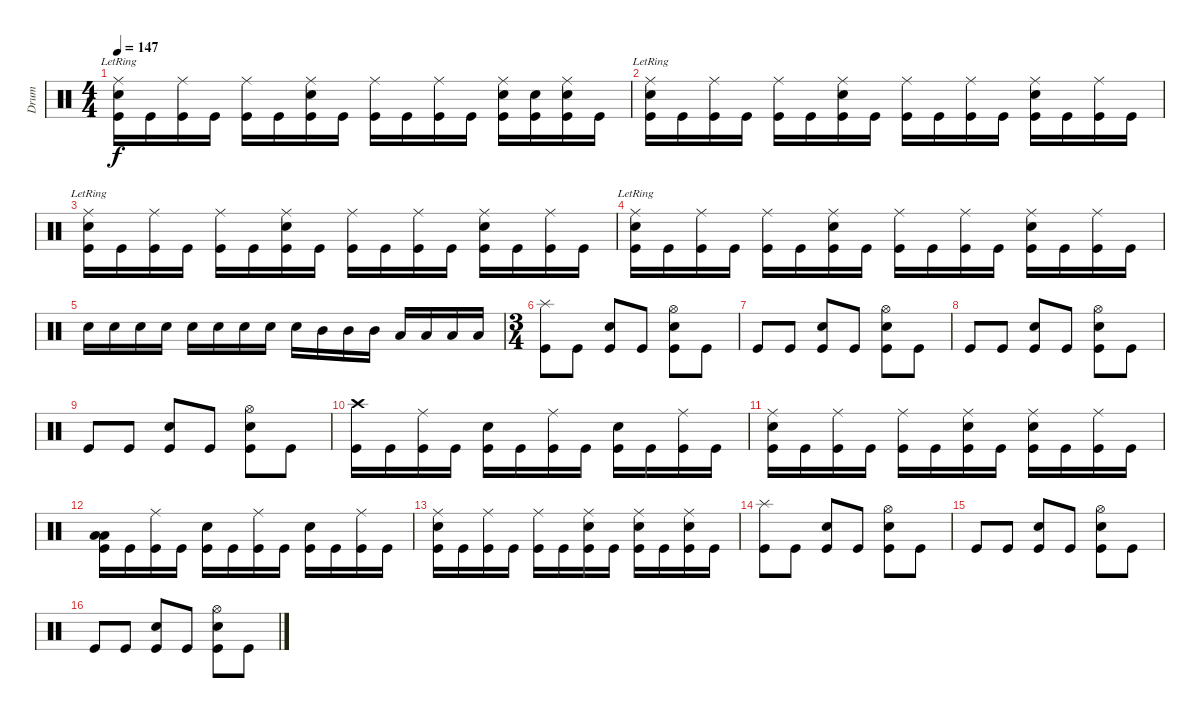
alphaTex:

\track ("Drum" "Drum") {instrument percussion}
\staff {score}
\articulation defaults
\ts (4 4)
\tempo 147
\clef neutral
\ks c
("Ride (middle)"{lr} "Snare (hit) 2" "Kick (hit)").16{dy f} "Kick (hit)".16 ("Ride (middle)" "Kick (hit)").16 "Kick (hit)".16 ("Ride (middle)" "Kick (hit)").16 "Kick (hit)".16 ("Ride (middle)" "Snare (hit) 2" "Kick (hit)").16 "Kick (hit)".16 ("Ride (middle)" "Kick (hit)").16 "Kick (hit)".16 ("Ride (middle)" "Kick (hit)").16 "Kick (hit)".16 ("Ride (middle)" "Snare (hit) 2" "Kick (hit)").16 ("Snare (hit) 2" "Kick (hit)").16 ("Ride (middle)" "Snare (hit) 2" "Kick (hit)").16 "Kick (hit)".16 |
("Ride (middle)"{lr} "Snare (hit) 2" "Kick (hit)").16 "Kick (hit)".16 ("Ride (middle)" "Kick (hit)").16 "Kick (hit)".16 ("Ride (middle)" "Kick (hit)").16 "Kick (hit)".16 ("Ride (middle)" "Snare (hit) 2" "Kick (hit)").16 "Kick (hit)".16 ("Ride (middle)" "Kick (hit)").16 "Kick (hit)".16 ("Ride (middle)" "Kick (hit)").16 "Kick (hit)".16 ("Ride (middle)" "Snare (hit) 2" "Kick (hit)").16 "Kick (hit)".16 ("Ride (middle)" "Kick (hit)").16 "Kick (hit)".16 |
("Ride (middle)"{lr} "Snare (hit) 2" "Kick (hit)").16 "Kick (hit)".16 ("Ride (middle)" "Kick (hit)").16 "Kick (hit)".16 ("Ride (middle)" "Kick (hit)").16 "Kick (hit)".16 ("Ride (middle)" "Snare (hit) 2" "Kick (hit)").16 "Kick (hit)".16 ("Ride (middle)" "Kick (hit)").16 "Kick (hit)".16 ("Ride (middle)" "Kick (hit)").16 "Kick (hit)".16 ("Ride (middle)" "Snare (hit) 2" "Kick (hit)").16 "Kick (hit)".16 ("Ride (middle)" "Kick (hit)").16 "Kick (hit)".16 |
("Ride (middle)"{lr} "Snare (hit) 2" "Kick (hit)").16 "Kick (hit)".16 ("Ride (middle)" "Kick (hit)").16 "Kick (hit)".16 ("Ride (middle)" "Kick (hit)").16 "Kick (hit)".16 ("Ride (middle)" "Snare (hit) 2" "Kick (hit)").16 "Kick (hit)".16 ("Ride (middle)" "Kick (hit)").16 "Kick (hit)".16 ("Ride (middle)" "Kick (hit)").16 "Kick (hit)".16 ("Ride (middle)" "Snare (hit) 2" "Kick (hit)").16 "Kick (hit)".16 ("Ride (middle)" "Kick (hit)").16 "Kick (hit)".16 |
"Snare (hit) 2".16 "Snare (hit) 2".16 "Snare (hit) 2".16 "Snare (hit) 2".16 "Snare (hit) 2".16 "Snare (hit) 2".16 "Snare (hit) 2".16 "Snare (hit) 2".16 "Snare (hit) 2".16 "Mid Tom (hit)".16 "Mid Tom (hit)".16 "Mid Tom (hit)".16 "Low Tom (hit)".16 "Low Tom (hit)".16 "Low Tom (hit)".16 "Low Tom (hit)".16 |
\ts (3 4)
("Splash (hit)" "Kick (hit)").8 "Kick (hit)".8 ("Snare (hit) 2" "Kick (hit)").8 "Kick (hit)".8 ("Hi-Hat (open)" "Snare (hit) 2" "Kick (hit)").8 "Kick (hit)".8 |
"Kick (hit)".8 "Kick (hit)".8 ("Snare (hit) 2" "Kick (hit)").8 "Kick (hit)".8 ("Hi-Hat (open)" "Snare (hit) 2" "Kick (hit)").8 "Kick (hit)".8 |
"Kick (hit)".8 "Kick (hit)".8 ("Snare (hit) 2" "Kick (hit)").8 "Kick (hit)".8 ("Hi-Hat (open)" "Snare (hit) 2" "Kick (hit)").8 "Kick (hit)".8 |
"Kick (hit)".8 "Kick (hit)".8 ("Snare (hit) 2" "Kick (hit)").8 "Kick (hit)".8 ("Hi-Hat (open)" "Snare (hit) 2" "Kick (hit)").8 "Kick (hit)".8 |
("Crash high (hit)" "Kick (hit)").16 "Kick (hit)".16 ("Ride (middle)" "Kick (hit)").16 "Kick (hit)".16 ("Snare (hit) 2" "Kick (hit)").16 "Kick (hit)".16 ("Ride (middle)" "Kick (hit)").16 "Kick (hit)".16 ("Snare (hit) 2" "Kick (hit)").16 "Kick (hit)".16 ("Ride (middle)" "Kick (hit)").16 "Kick (hit)".16 |
("Ride (middle)" "Snare (hit) 2" "Kick (hit)").16 "Kick (hit)".16 ("Ride (middle)" "Kick (hit)").16 "Kick (hit)".16 ("Ride (middle)" "Kick (hit)").16 "Kick (hit)".16 ("Ride (middle)" "Snare (hit) 2" "Kick (hit)").16 "Kick (hit)".16 ("Ride (middle)" "Snare (hit) 2" "Kick (hit)").16 "Kick (hit)".16 ("Ride (middle)" "Kick (hit)").16 "Kick (hit)".16 |
("Low Floor Tom (hit)" "Low Floor Tom (hit)" "Kick (hit)").16 "Kick (hit)".16 ("Ride (middle)" "Kick (hit)").16 "Kick (hit)".16 ("Snare (hit) 2" "Kick (hit)").16 "Kick (hit)".16 ("Ride (middle)" "Kick (hit)").16 "Kick (hit)".16 ("Snare (hit) 2" "Kick (hit)").16 "Kick (hit)".16 ("Ride (middle)" "Kick (hit)").16 "Kick (hit)".16 |
("Ride (middle)" "Snare (hit) 2" "Kick (hit)").16 "Kick (hit)".16 ("Ride (middle)" "Kick (hit)").16 "Kick (hit)".16 ("Ride (middle)" "Kick (hit)").16 "Kick (hit)".16 ("Ride (middle)" "Snare (hit) 2" "Kick (hit)").16 "Kick (hit)".16 ("Ride (middle)" "Snare (hit) 2" "Kick (hit)").16 "Kick (hit)".16 ("Ride (middle)" "Snare (hit) 2" "Kick (hit)").16 "Kick (hit)".16 |
("Splash (hit)" "Kick (hit)").8 "Kick (hit)".8 ("Snare (hit) 2" "Kick (hit)").8 "Kick (hit)".8 ("Hi-Hat (open)" "Snare (hit) 2" "Kick (hit)").8 "Kick (hit)".8 |
"Kick (hit)".8 "Kick (hit)".8 ("Snare (hit) 2" "Kick (hit)").8 "Kick (hit)".8 ("Hi-Hat (open)" "Snare (hit) 2" "Kick (hit)").8 "Kick (hit)".8 |
"Kick (hit)".8 "Kick (hit)".8 ("Snare (hit) 2" "Kick (hit)").8 "Kick (hit)".8 ("Hi-Hat (open)" "Snare (hit) 2" "Kick (hit)").8 "Kick (hit)".8
